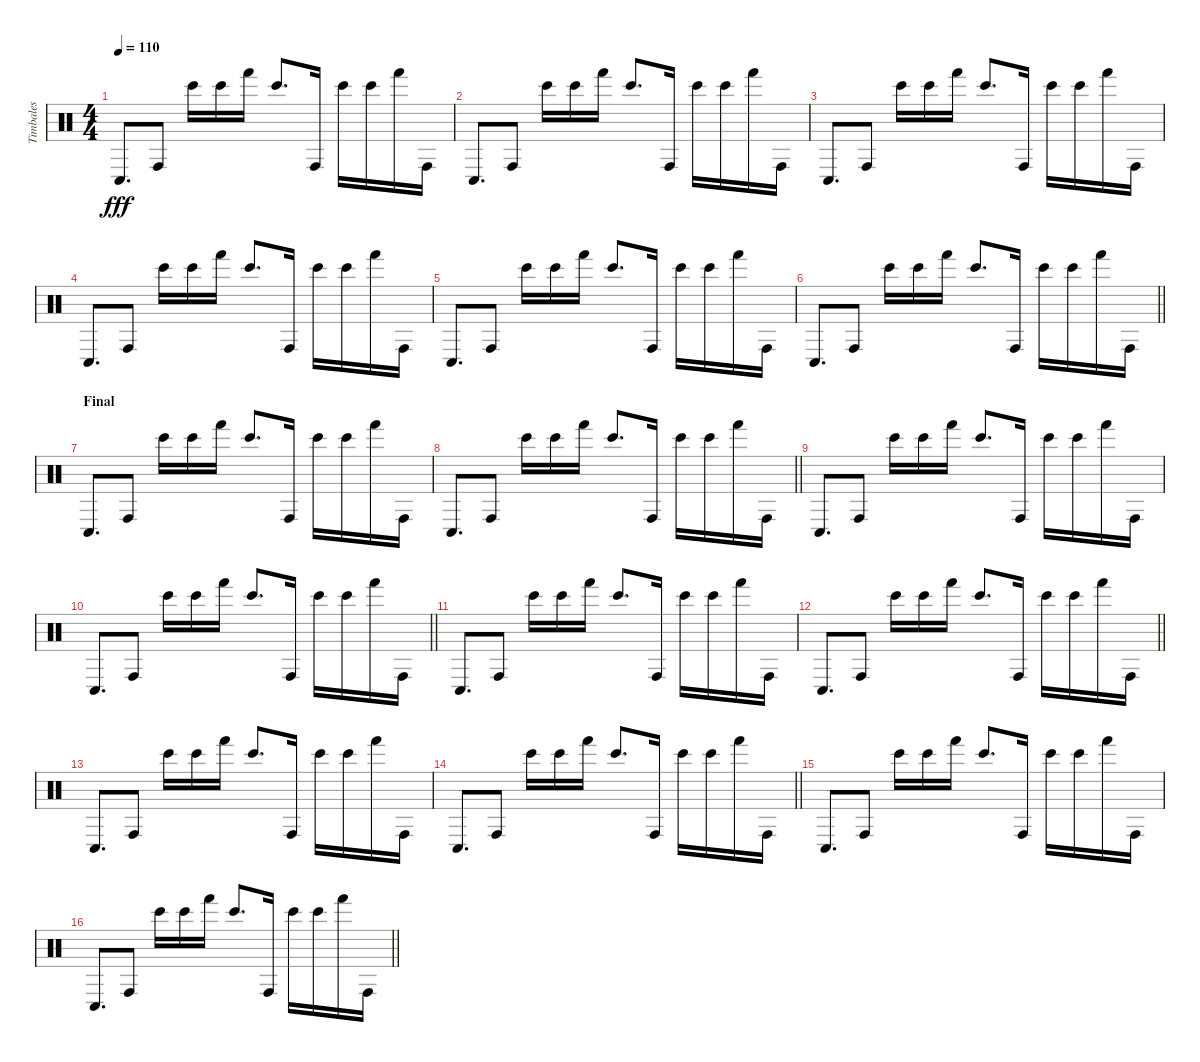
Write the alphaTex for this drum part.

\track ("Timbales" "Timbales") {instrument percussion}
\staff {score}
\articulation defaults
\ts (4 4)
\tempo 110
\clef neutral
\ks c "Conga low (hit)".8{d dy fff} "Conga high (hit)".8 "Bongo High (hit)".16 "Bongo High (hit)".16 "Hand (hit)".16 "Bongo High (hit)".8{d} "Conga high (hit)".16 "Bongo High (hit)".16 "Bongo High (hit)".16 "Hand (hit)".16 "Conga high (hit)".16
|
"Conga low (hit)".8{d} "Conga high (hit)".8 "Bongo High (hit)".16 "Bongo High (hit)".16 "Hand (hit)".16 "Bongo High (hit)".8{d} "Conga high (hit)".16 "Bongo High (hit)".16 "Bongo High (hit)".16 "Hand (hit)".16 "Conga high (hit)".16 |
"Conga low (hit)".8{d} "Conga high (hit)".8 "Bongo High (hit)".16 "Bongo High (hit)".16 "Hand (hit)".16 "Bongo High (hit)".8{d} "Conga high (hit)".16 "Bongo High (hit)".16 "Bongo High (hit)".16 "Hand (hit)".16 "Conga high (hit)".16 |
"Conga low (hit)".8{d} "Conga high (hit)".8 "Bongo High (hit)".16 "Bongo High (hit)".16 "Hand (hit)".16 "Bongo High (hit)".8{d} "Conga high (hit)".16 "Bongo High (hit)".16 "Bongo High (hit)".16 "Hand (hit)".16 "Conga high (hit)".16 |
"Conga low (hit)".8{d} "Conga high (hit)".8 "Bongo High (hit)".16 "Bongo High (hit)".16 "Hand (hit)".16 "Bongo High (hit)".8{d} "Conga high (hit)".16 "Bongo High (hit)".16 "Bongo High (hit)".16 "Hand (hit)".16 "Conga high (hit)".16 |
\barLineRight lightlight "Conga low (hit)".8{d} "Conga high (hit)".8 "Bongo High (hit)".16 "Bongo High (hit)".16 "Hand (hit)".16 "Bongo High (hit)".8{d} "Conga high (hit)".16 "Bongo High (hit)".16 "Bongo High (hit)".16 "Hand (hit)".16 "Conga high (hit)".16
|
\section ("" "Final")
"Conga low (hit)".8{d} "Conga high (hit)".8 "Bongo High (hit)".16 "Bongo High (hit)".16 "Hand (hit)".16 "Bongo High (hit)".8{d} "Conga high (hit)".16 "Bongo High (hit)".16 "Bongo High (hit)".16 "Hand (hit)".16 "Conga high (hit)".16 |
\barLineRight lightlight "Conga low (hit)".8{d} "Conga high (hit)".8 "Bongo High (hit)".16 "Bongo High (hit)".16 "Hand (hit)".16 "Bongo High (hit)".8{d} "Conga high (hit)".16 "Bongo High (hit)".16 "Bongo High (hit)".16 "Hand (hit)".16 "Conga high (hit)".16
|
"Conga low (hit)".8{d} "Conga high (hit)".8 "Bongo High (hit)".16 "Bongo High (hit)".16 "Hand (hit)".16 "Bongo High (hit)".8{d} "Conga high (hit)".16 "Bongo High (hit)".16 "Bongo High (hit)".16 "Hand (hit)".16 "Conga high (hit)".16 |
\barLineRight lightlight "Conga low (hit)".8{d} "Conga high (hit)".8 "Bongo High (hit)".16 "Bongo High (hit)".16 "Hand (hit)".16 "Bongo High (hit)".8{d} "Conga high (hit)".16 "Bongo High (hit)".16 "Bongo High (hit)".16 "Hand (hit)".16 "Conga high (hit)".16
|
"Conga low (hit)".8{d} "Conga high (hit)".8 "Bongo High (hit)".16 "Bongo High (hit)".16 "Hand (hit)".16 "Bongo High (hit)".8{d} "Conga high (hit)".16 "Bongo High (hit)".16 "Bongo High (hit)".16 "Hand (hit)".16 "Conga high (hit)".16 |
\barLineRight lightlight "Conga low (hit)".8{d} "Conga high (hit)".8 "Bongo High (hit)".16 "Bongo High (hit)".16 "Hand (hit)".16 "Bongo High (hit)".8{d} "Conga high (hit)".16 "Bongo High (hit)".16 "Bongo High (hit)".16 "Hand (hit)".16 "Conga high (hit)".16
|
"Conga low (hit)".8{d} "Conga high (hit)".8 "Bongo High (hit)".16 "Bongo High (hit)".16 "Hand (hit)".16 "Bongo High (hit)".8{d} "Conga high (hit)".16 "Bongo High (hit)".16 "Bongo High (hit)".16 "Hand (hit)".16 "Conga high (hit)".16 |
\barLineRight lightlight "Conga low (hit)".8{d} "Conga high (hit)".8 "Bongo High (hit)".16 "Bongo High (hit)".16 "Hand (hit)".16 "Bongo High (hit)".8{d} "Conga high (hit)".16 "Bongo High (hit)".16 "Bongo High (hit)".16 "Hand (hit)".16 "Conga high (hit)".16
|
"Conga low (hit)".8{d} "Conga high (hit)".8 "Bongo High (hit)".16 "Bongo High (hit)".16 "Hand (hit)".16 "Bongo High (hit)".8{d} "Conga high (hit)".16 "Bongo High (hit)".16 "Bongo High (hit)".16 "Hand (hit)".16 "Conga high (hit)".16 |
\barLineRight lightlight "Conga low (hit)".8{d} "Conga high (hit)".8 "Bongo High (hit)".16 "Bongo High (hit)".16 "Hand (hit)".16 "Bongo High (hit)".8{d} "Conga high (hit)".16 "Bongo High (hit)".16 "Bongo High (hit)".16 "Hand (hit)".16 "Conga high (hit)".16
